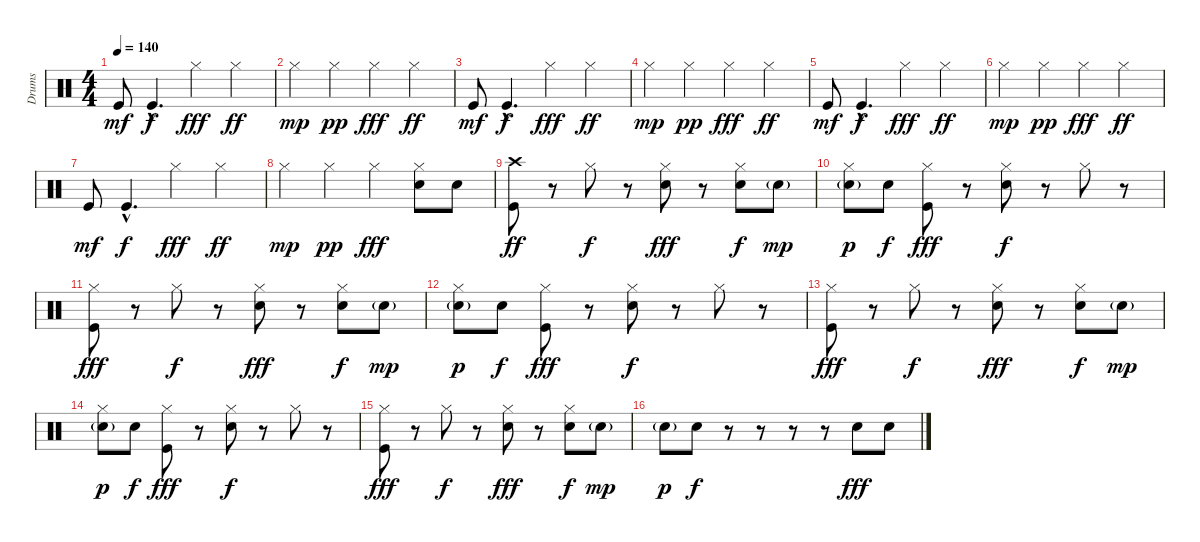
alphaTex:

\track ("Drums" "Drums") {instrument percussion}
\staff {score}
\articulation defaults
\ts (4 4)
\tempo 140
\clef neutral
\ks c "Kick (hit)".8{dy mf} "Kick (hit)"{hac}.4{d dy f} "Hi-Hat (closed)".4{dy fff} "Hi-Hat (closed)".4{dy ff}
|
"Hi-Hat (closed)".4{dy mp} "Hi-Hat (closed)".4{dy pp} "Hi-Hat (closed)".4{dy fff} "Hi-Hat (closed)".4{dy ff} |
"Kick (hit)".8{dy mf} "Kick (hit)"{hac}.4{d dy f} "Hi-Hat (closed)".4{dy fff} "Hi-Hat (closed)".4{dy ff} |
"Hi-Hat (closed)".4{dy mp} "Hi-Hat (closed)".4{dy pp} "Hi-Hat (closed)".4{dy fff} "Hi-Hat (closed)".4{dy ff} |
"Kick (hit)".8{dy mf} "Kick (hit)"{hac}.4{d dy f} "Hi-Hat (closed)".4{dy fff} "Hi-Hat (closed)".4{dy ff} |
"Hi-Hat (closed)".4{dy mp} "Hi-Hat (closed)".4{dy pp} "Hi-Hat (closed)".4{dy fff} "Hi-Hat (closed)".4{dy ff} |
"Kick (hit)".8{dy mf} "Kick (hit)"{hac}.4{d dy f} "Hi-Hat (closed)".4{dy fff} "Hi-Hat (closed)".4{dy ff} |
"Hi-Hat (closed)".4{dy mp} "Hi-Hat (closed)".4{dy pp} "Hi-Hat (closed)".4{dy fff} ("Hi-Hat (closed)" "Snare (hit) 2").8 "Snare (hit) 2".8 |
("Crash high (hit)" "Kick (hit)").8{dy ff} r.8 "Hi-Hat (closed)".8{dy f} r.8 ("Hi-Hat (closed)" "Snare (hit) 2").8{dy fff} r.8 ("Hi-Hat (closed)" "Snare (hit) 2").8{dy f} "Snare (hit) 2"{g}.8{dy mp} |
("Hi-Hat (closed)" "Snare (hit) 2"{g}).8{dy p} "Snare (hit) 2".8{dy f} ("Hi-Hat (closed)" "Kick (hit)").8{dy fff} r.8 ("Hi-Hat (closed)" "Snare (hit) 2").8{dy f} r.8 "Hi-Hat (closed)".8 r.8 |
("Hi-Hat (closed)" "Kick (hit)").8{dy fff} r.8 "Hi-Hat (closed)".8{dy f} r.8 ("Hi-Hat (closed)" "Snare (hit) 2").8{dy fff} r.8 ("Hi-Hat (closed)" "Snare (hit) 2").8{dy f} "Snare (hit) 2"{g}.8{dy mp} |
("Hi-Hat (closed)" "Snare (hit) 2"{g}).8{dy p} "Snare (hit) 2".8{dy f} ("Hi-Hat (closed)" "Kick (hit)").8{dy fff} r.8 ("Hi-Hat (closed)" "Snare (hit) 2").8{dy f} r.8 "Hi-Hat (closed)".8 r.8 |
("Hi-Hat (closed)" "Kick (hit)").8{dy fff} r.8 "Hi-Hat (closed)".8{dy f} r.8 ("Hi-Hat (closed)" "Snare (hit) 2").8{dy fff} r.8 ("Hi-Hat (closed)" "Snare (hit) 2").8{dy f} "Snare (hit) 2"{g}.8{dy mp} |
("Hi-Hat (closed)" "Snare (hit) 2"{g}).8{dy p} "Snare (hit) 2".8{dy f} ("Hi-Hat (closed)" "Kick (hit)").8{dy fff} r.8 ("Hi-Hat (closed)" "Snare (hit) 2").8{dy f} r.8 "Hi-Hat (closed)".8 r.8 |
("Hi-Hat (closed)" "Kick (hit)").8{dy fff} r.8 "Hi-Hat (closed)".8{dy f} r.8 ("Hi-Hat (closed)" "Snare (hit) 2").8{dy fff} r.8 ("Hi-Hat (closed)" "Snare (hit) 2").8{dy f} "Snare (hit) 2"{g}.8{dy mp} |
"Snare (hit) 2"{g}.8{dy p} "Snare (hit) 2".8{dy f} r.8 r.8 r.8 r.8 "Snare (hit) 2".8{dy fff} "Snare (hit) 2".8
